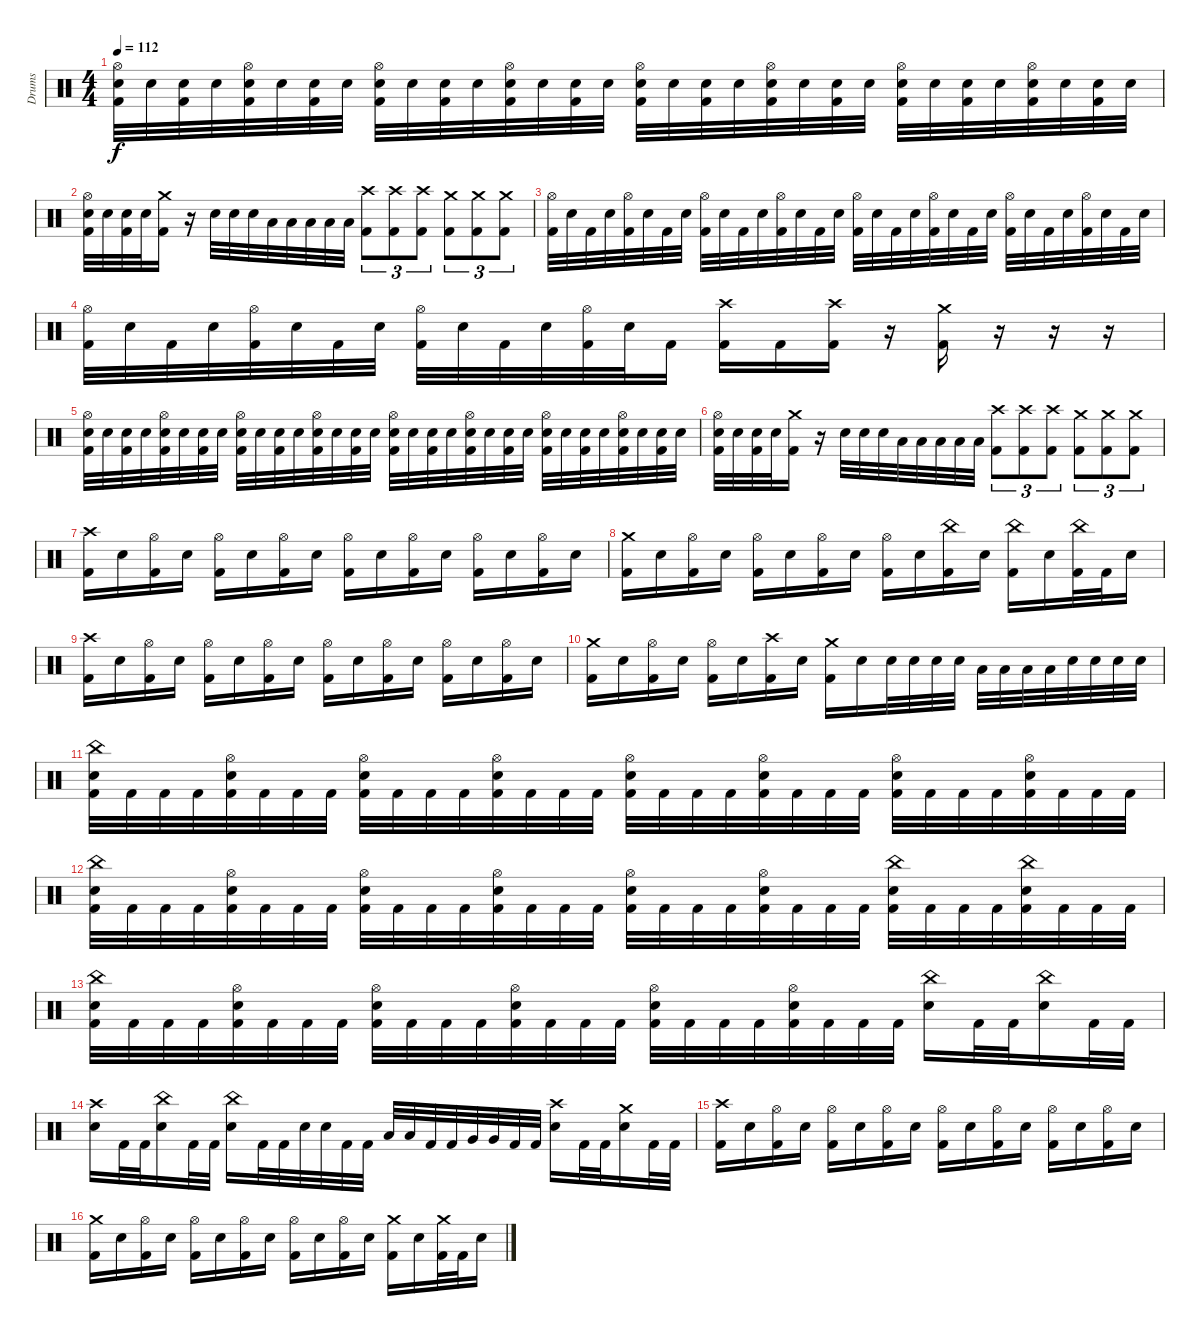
\track ("Drums" "Drums") {instrument percussion}
\staff {score}
\articulation defaults
\ts (4 4)
\tempo 112
\clef neutral
\ks c
("Hi-Hat (open)" "Snare (hit) 2" "Kick (hit) 2").32{dy f} "Snare (hit) 2".32 ("Snare (hit) 2" "Kick (hit) 2").32 "Snare (hit) 2".32 ("Hi-Hat (open)" "Snare (hit) 2" "Kick (hit) 2").32 "Snare (hit) 2".32 ("Snare (hit) 2" "Kick (hit) 2").32 "Snare (hit) 2".32 ("Hi-Hat (open)" "Snare (hit) 2" "Kick (hit) 2").32 "Snare (hit) 2".32 ("Snare (hit) 2" "Kick (hit) 2").32 "Snare (hit) 2".32 ("Hi-Hat (open)" "Snare (hit) 2" "Kick (hit) 2").32 "Snare (hit) 2".32 ("Snare (hit) 2" "Kick (hit) 2").32 "Snare (hit) 2".32 ("Hi-Hat (open)" "Snare (hit) 2" "Kick (hit) 2").32 "Snare (hit) 2".32 ("Snare (hit) 2" "Kick (hit) 2").32 "Snare (hit) 2".32 ("Hi-Hat (open)" "Snare (hit) 2" "Kick (hit) 2").32 "Snare (hit) 2".32 ("Snare (hit) 2" "Kick (hit) 2").32 "Snare (hit) 2".32 ("Hi-Hat (open)" "Snare (hit) 2" "Kick (hit) 2").32 "Snare (hit) 2".32 ("Snare (hit) 2" "Kick (hit) 2").32 "Snare (hit) 2".32 ("Hi-Hat (open)" "Snare (hit) 2" "Kick (hit) 2").32 "Snare (hit) 2".32 ("Snare (hit) 2" "Kick (hit) 2").32 "Snare (hit) 2".32 |
("Hi-Hat (open)" "Snare (hit) 2" "Kick (hit) 2").32 "Snare (hit) 2".32 ("Snare (hit) 2" "Kick (hit) 2").32 "Snare (hit) 2".32 ("Crash medium (hit)" "Kick (hit) 2").16 r.16 "Snare (hit) 2".32 "Snare (hit) 2".32 "Snare (hit) 2".32 "Low Tom (hit)".32 "Low Tom (hit)".32 "Low Tom (hit)".32 "Low Tom (hit)".32 "Low Tom (hit)".32 ("Crash high (hit)" "Kick (hit) 2").8{tu (3 2)} ("Crash high (hit)" "Kick (hit) 2").8{tu (3 2)} ("Crash high (hit)" "Kick (hit) 2").8{tu (3 2)} ("Crash medium (hit)" "Kick (hit) 2").8{tu (3 2)} ("Crash medium (hit)" "Kick (hit) 2").8{tu (3 2)} ("Crash medium (hit)" "Kick (hit) 2").8{tu (3 2)} |
("Hi-Hat (open)" "Kick (hit) 2").32 "Snare (hit) 2".32 "Kick (hit) 2".32 "Snare (hit) 2".32 ("Hi-Hat (open)" "Kick (hit) 2").32 "Snare (hit) 2".32 "Kick (hit) 2".32 "Snare (hit) 2".32 ("Hi-Hat (open)" "Kick (hit) 2").32 "Snare (hit) 2".32 "Kick (hit) 2".32 "Snare (hit) 2".32 ("Hi-Hat (open)" "Kick (hit) 2").32 "Snare (hit) 2".32 "Kick (hit) 2".32 "Snare (hit) 2".32 ("Hi-Hat (open)" "Kick (hit) 2").32 "Snare (hit) 2".32 "Kick (hit) 2".32 "Snare (hit) 2".32 ("Hi-Hat (open)" "Kick (hit) 2").32 "Snare (hit) 2".32 "Kick (hit) 2".32 "Snare (hit) 2".32 ("Hi-Hat (open)" "Kick (hit) 2").32 "Snare (hit) 2".32 "Kick (hit) 2".32 "Snare (hit) 2".32 ("Hi-Hat (open)" "Kick (hit) 2").32 "Snare (hit) 2".32 "Kick (hit) 2".32 "Snare (hit) 2".32 |
("Hi-Hat (open)" "Kick (hit) 2").32 "Snare (hit) 2".32 "Kick (hit) 2".32 "Snare (hit) 2".32 ("Hi-Hat (open)" "Kick (hit) 2").32 "Snare (hit) 2".32 "Kick (hit) 2".32 "Snare (hit) 2".32 ("Hi-Hat (open)" "Kick (hit) 2").32 "Snare (hit) 2".32 "Kick (hit) 2".32 "Snare (hit) 2".32 ("Hi-Hat (open)" "Kick (hit) 2").32 "Snare (hit) 2".32 "Kick (hit) 2".16 ("Crash high (hit)" "Kick (hit) 2").16 "Kick (hit) 2".16 ("Crash high (hit)" "Kick (hit) 2").16 r.16 ("Crash medium (hit)" "Kick (hit) 2").16 r.16 r.16 r.16 |
("Hi-Hat (open)" "Snare (hit) 2" "Kick (hit) 2").32 "Snare (hit) 2".32 ("Snare (hit) 2" "Kick (hit) 2").32 "Snare (hit) 2".32 ("Hi-Hat (open)" "Snare (hit) 2" "Kick (hit) 2").32 "Snare (hit) 2".32 ("Snare (hit) 2" "Kick (hit) 2").32 "Snare (hit) 2".32 ("Hi-Hat (open)" "Snare (hit) 2" "Kick (hit) 2").32 "Snare (hit) 2".32 ("Snare (hit) 2" "Kick (hit) 2").32 "Snare (hit) 2".32 ("Hi-Hat (open)" "Snare (hit) 2" "Kick (hit) 2").32 "Snare (hit) 2".32 ("Snare (hit) 2" "Kick (hit) 2").32 "Snare (hit) 2".32 ("Hi-Hat (open)" "Snare (hit) 2" "Kick (hit) 2").32 "Snare (hit) 2".32 ("Snare (hit) 2" "Kick (hit) 2").32 "Snare (hit) 2".32 ("Hi-Hat (open)" "Snare (hit) 2" "Kick (hit) 2").32 "Snare (hit) 2".32 ("Snare (hit) 2" "Kick (hit) 2").32 "Snare (hit) 2".32 ("Hi-Hat (open)" "Snare (hit) 2" "Kick (hit) 2").32 "Snare (hit) 2".32 ("Snare (hit) 2" "Kick (hit) 2").32 "Snare (hit) 2".32 ("Hi-Hat (open)" "Snare (hit) 2" "Kick (hit) 2").32 "Snare (hit) 2".32 ("Snare (hit) 2" "Kick (hit) 2").32 "Snare (hit) 2".32 |
("Hi-Hat (open)" "Snare (hit) 2" "Kick (hit) 2").32 "Snare (hit) 2".32 ("Snare (hit) 2" "Kick (hit) 2").32 "Snare (hit) 2".32 ("Crash medium (hit)" "Kick (hit) 2").16 r.16 "Snare (hit) 2".32 "Snare (hit) 2".32 "Snare (hit) 2".32 "Low Tom (hit)".32 "Low Tom (hit)".32 "Low Tom (hit)".32 "Low Tom (hit)".32 "Low Tom (hit)".32 ("Crash high (hit)" "Kick (hit) 2").8{tu (3 2)} ("Crash high (hit)" "Kick (hit) 2").8{tu (3 2)} ("Crash high (hit)" "Kick (hit) 2").8{tu (3 2)} ("Crash medium (hit)" "Kick (hit) 2").8{tu (3 2)} ("Crash medium (hit)" "Kick (hit) 2").8{tu (3 2)} ("Crash medium (hit)" "Kick (hit) 2").8{tu (3 2)} |
("Crash high (hit)" "Kick (hit) 2").16 "Snare (hit) 2".16 ("Hi-Hat (open)" "Kick (hit) 2").16 "Snare (hit) 2".16 ("Hi-Hat (open)" "Kick (hit) 2").16 "Snare (hit) 2".16 ("Hi-Hat (open)" "Kick (hit) 2").16 "Snare (hit) 2".16 ("Hi-Hat (open)" "Kick (hit) 2").16 "Snare (hit) 2".16 ("Hi-Hat (open)" "Kick (hit) 2").16 "Snare (hit) 2".16 ("Hi-Hat (open)" "Kick (hit) 2").16 "Snare (hit) 2".16 ("Hi-Hat (open)" "Kick (hit) 2").16 "Snare (hit) 2".16 |
("Crash medium (hit)" "Kick (hit) 2").16 "Snare (hit) 2".16 ("Hi-Hat (open)" "Kick (hit) 2").16 "Snare (hit) 2".16 ("Hi-Hat (open)" "Kick (hit) 2").16 "Snare (hit) 2".16 ("Hi-Hat (open)" "Kick (hit) 2").16 "Snare (hit) 2".16 ("Hi-Hat (open)" "Kick (hit) 2").16 "Snare (hit) 2".16 ("China (hit)" "Kick (hit) 2").16 "Snare (hit) 2".16 ("China (hit)" "Kick (hit) 2").16 "Snare (hit) 2".16 ("China (hit)" "Kick (hit) 2").32 "Kick (hit) 2".32 "Snare (hit) 2".16 |
("Crash high (hit)" "Kick (hit) 2").16 "Snare (hit) 2".16 ("Hi-Hat (open)" "Kick (hit) 2").16 "Snare (hit) 2".16 ("Hi-Hat (open)" "Kick (hit) 2").16 "Snare (hit) 2".16 ("Hi-Hat (open)" "Kick (hit) 2").16 "Snare (hit) 2".16 ("Hi-Hat (open)" "Kick (hit) 2").16 "Snare (hit) 2".16 ("Hi-Hat (open)" "Kick (hit) 2").16 "Snare (hit) 2".16 ("Hi-Hat (open)" "Kick (hit) 2").16 "Snare (hit) 2".16 ("Hi-Hat (open)" "Kick (hit) 2").16 "Snare (hit) 2".16 |
("Crash medium (hit)" "Kick (hit) 2").16 "Snare (hit) 2".16 ("Hi-Hat (open)" "Kick (hit) 2").16 "Snare (hit) 2".16 ("Hi-Hat (open)" "Kick (hit) 2").16 "Snare (hit) 2".16 ("Crash high (hit)" "Kick (hit) 2").16 "Snare (hit) 2".16 ("Crash medium (hit)" "Kick (hit) 2").16 "Snare (hit) 2".16 "Snare (hit) 2".32 "Snare (hit) 2".32 "Snare (hit) 2".32 "Snare (hit) 2".32 "Low Tom (hit)".32 "Low Tom (hit)".32 "Low Tom (hit)".32 "Low Tom (hit)".32 "Snare (hit) 2".32 "Snare (hit) 2".32 "Snare (hit) 2".32 "Snare (hit) 2".32 |
("China (hit)" "Snare (hit) 2" "Kick (hit) 2").32 "Kick (hit) 2".32 "Kick (hit) 2".32 "Kick (hit) 2".32 ("Hi-Hat (open)" "Snare (hit) 2" "Kick (hit) 2").32 "Kick (hit) 2".32 "Kick (hit) 2".32 "Kick (hit) 2".32 ("Hi-Hat (open)" "Snare (hit) 2" "Kick (hit) 2").32 "Kick (hit) 2".32 "Kick (hit) 2".32 "Kick (hit) 2".32 ("Hi-Hat (open)" "Snare (hit) 2" "Kick (hit) 2").32 "Kick (hit) 2".32 "Kick (hit) 2".32 "Kick (hit) 2".32 ("Hi-Hat (open)" "Snare (hit) 2" "Kick (hit) 2").32 "Kick (hit) 2".32 "Kick (hit) 2".32 "Kick (hit) 2".32 ("Hi-Hat (open)" "Snare (hit) 2" "Kick (hit) 2").32 "Kick (hit) 2".32 "Kick (hit) 2".32 "Kick (hit) 2".32 ("Hi-Hat (open)" "Snare (hit) 2" "Kick (hit) 2").32 "Kick (hit) 2".32 "Kick (hit) 2".32 "Kick (hit) 2".32 ("Hi-Hat (open)" "Snare (hit) 2" "Kick (hit) 2").32 "Kick (hit) 2".32 "Kick (hit) 2".32 "Kick (hit) 2".32 |
("China (hit)" "Snare (hit) 2" "Kick (hit) 2").32 "Kick (hit) 2".32 "Kick (hit) 2".32 "Kick (hit) 2".32 ("Hi-Hat (open)" "Snare (hit) 2" "Kick (hit) 2").32 "Kick (hit) 2".32 "Kick (hit) 2".32 "Kick (hit) 2".32 ("Hi-Hat (open)" "Snare (hit) 2" "Kick (hit) 2").32 "Kick (hit) 2".32 "Kick (hit) 2".32 "Kick (hit) 2".32 ("Hi-Hat (open)" "Snare (hit) 2" "Kick (hit) 2").32 "Kick (hit) 2".32 "Kick (hit) 2".32 "Kick (hit) 2".32 ("Hi-Hat (open)" "Snare (hit) 2" "Kick (hit) 2").32 "Kick (hit) 2".32 "Kick (hit) 2".32 "Kick (hit) 2".32 ("Hi-Hat (open)" "Snare (hit) 2" "Kick (hit) 2").32 "Kick (hit) 2".32 "Kick (hit) 2".32 "Kick (hit) 2".32 ("China (hit)" "Snare (hit) 2" "Kick (hit) 2").32 "Kick (hit) 2".32 "Kick (hit) 2".32 "Kick (hit) 2".32 ("China (hit)" "Snare (hit) 2" "Kick (hit) 2").32 "Kick (hit) 2".32 "Kick (hit) 2".32 "Kick (hit) 2".32 |
("China (hit)" "Snare (hit) 2" "Kick (hit) 2").32 "Kick (hit) 2".32 "Kick (hit) 2".32 "Kick (hit) 2".32 ("Hi-Hat (open)" "Snare (hit) 2" "Kick (hit) 2").32 "Kick (hit) 2".32 "Kick (hit) 2".32 "Kick (hit) 2".32 ("Hi-Hat (open)" "Snare (hit) 2" "Kick (hit) 2").32 "Kick (hit) 2".32 "Kick (hit) 2".32 "Kick (hit) 2".32 ("Hi-Hat (open)" "Snare (hit) 2" "Kick (hit) 2").32 "Kick (hit) 2".32 "Kick (hit) 2".32 "Kick (hit) 2".32 ("Hi-Hat (open)" "Snare (hit) 2" "Kick (hit) 2").32 "Kick (hit) 2".32 "Kick (hit) 2".32 "Kick (hit) 2".32 ("Hi-Hat (open)" "Snare (hit) 2" "Kick (hit) 2").32 "Kick (hit) 2".32 "Kick (hit) 2".32 "Kick (hit) 2".32 ("China (hit)" "Snare (hit) 2").16 "Kick (hit) 2".32 "Kick (hit) 2".32 ("China (hit)" "Snare (hit) 2").16 "Kick (hit) 2".32 "Kick (hit) 2".32 |
("Crash high (hit)" "Snare (hit) 2").16 "Kick (hit) 2".32 "Kick (hit) 2".32 ("China (hit)" "Snare (hit) 2").16 "Kick (hit) 2".32 "Kick (hit) 2".32 ("China (hit)" "Snare (hit) 2").16 "Kick (hit) 2".32 "Kick (hit) 2".32 "Snare (hit) 2".32 "Snare (hit) 2".32 "Kick (hit) 2".32 "Kick (hit) 2".32 "Low Tom (hit)".32 "Low Tom (hit)".32 "Kick (hit) 2".32 "Kick (hit) 2".32 "Very Low Tom (hit)".32 "Very Low Tom (hit)".32 "Kick (hit) 2".32 "Kick (hit) 2".32 ("Crash high (hit)" "Snare (hit) 2").16 "Kick (hit) 2".32 "Kick (hit) 2".32 ("Crash medium (hit)" "Snare (hit) 2").16 "Kick (hit) 2".32 "Kick (hit) 2".32 |
("Crash high (hit)" "Kick (hit) 2").16 "Snare (hit) 2".16 ("Hi-Hat (open)" "Kick (hit) 2").16 "Snare (hit) 2".16 ("Hi-Hat (open)" "Kick (hit) 2").16 "Snare (hit) 2".16 ("Hi-Hat (open)" "Kick (hit) 2").16 "Snare (hit) 2".16 ("Hi-Hat (open)" "Kick (hit) 2").16 "Snare (hit) 2".16 ("Hi-Hat (open)" "Kick (hit) 2").16 "Snare (hit) 2".16 ("Hi-Hat (open)" "Kick (hit) 2").16 "Snare (hit) 2".16 ("Hi-Hat (open)" "Kick (hit) 2").16 "Snare (hit) 2".16 |
("Crash medium (hit)" "Kick (hit) 2").16 "Snare (hit) 2".16 ("Hi-Hat (open)" "Kick (hit) 2").16 "Snare (hit) 2".16 ("Hi-Hat (open)" "Kick (hit) 2").16 "Snare (hit) 2".16 ("Hi-Hat (open)" "Kick (hit) 2").16 "Snare (hit) 2".16 ("Hi-Hat (open)" "Kick (hit) 2").16 "Snare (hit) 2".16 ("Hi-Hat (open)" "Kick (hit) 2").16 "Snare (hit) 2".16 ("Crash medium (hit)" "Kick (hit) 2").16 "Snare (hit) 2".16 ("Crash medium (hit)" "Kick (hit) 2").32 "Kick (hit) 2".32 "Snare (hit) 2".16
